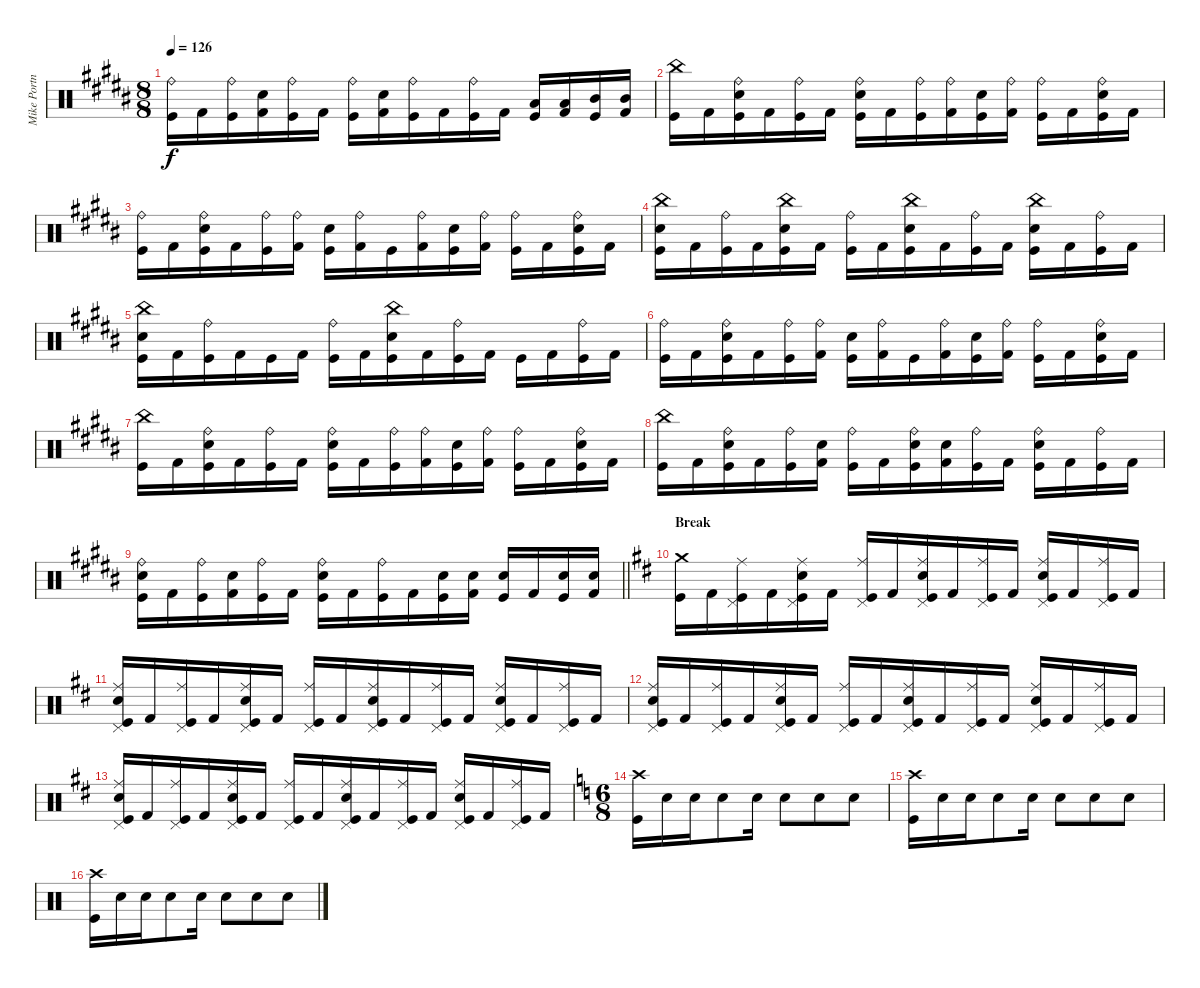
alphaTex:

\track ("Mike Portnoy" "Mike Portn") {instrument percussion}
\staff {score}
\articulation defaults
\ts (8 8)
\tempo 126
\clef neutral
\ks g#minor
("Ride (bell)" "Kick (hit)").16{dy f} "Kick (hit) 2".16 ("Ride (bell)" "Kick (hit)").16 ("Electric Snare (hit)" "Kick (hit) 2").16 ("Ride (bell)" "Kick (hit)").16 "Kick (hit) 2".16 ("Ride (bell)" "Kick (hit)").16 ("Electric Snare (hit)" "Kick (hit) 2").16 ("Ride (bell)" "Kick (hit)").16 "Kick (hit) 2".16 ("Ride (bell)" "Kick (hit)").16 "Kick (hit) 2".16 ("Low Tom (hit)" "Kick (hit)").16 ("Low Tom (hit)" "Kick (hit) 2").16 ("Mid Tom (hit)" "Kick (hit)").16 ("Mid Tom (hit)" "Kick (hit) 2").16 |
("China (hit)" "Kick (hit)").16 "Kick (hit) 2".16 ("Ride (bell)" "Electric Snare (hit)" "Kick (hit)").16 "Kick (hit) 2".16 ("Ride (bell)" "Kick (hit)").16 "Kick (hit) 2".16 ("Ride (bell)" "Electric Snare (hit)" "Kick (hit)").16 "Kick (hit) 2".16 ("Ride (bell)" "Kick (hit)").16 ("Ride (bell)" "Kick (hit) 2").16 ("Electric Snare (hit)" "Kick (hit)").16 ("Ride (bell)" "Kick (hit) 2").16 ("Ride (bell)" "Kick (hit)").16 "Kick (hit) 2".16 ("Ride (bell)" "Electric Snare (hit)" "Kick (hit)").16 "Kick (hit) 2".16 |
("Ride (bell)" "Kick (hit)").16 "Kick (hit) 2".16 ("Ride (bell)" "Electric Snare (hit)" "Kick (hit)").16 "Kick (hit) 2".16 ("Ride (bell)" "Kick (hit)").16 ("Ride (bell)" "Kick (hit) 2").16 ("Electric Snare (hit)" "Kick (hit)").16 ("Ride (bell)" "Kick (hit) 2").16 "Kick (hit)".16 ("Ride (bell)" "Kick (hit) 2").16 ("Electric Snare (hit)" "Kick (hit)").16 ("Ride (bell)" "Kick (hit) 2").16 ("Ride (bell)" "Kick (hit)").16 "Kick (hit) 2".16 ("Ride (bell)" "Electric Snare (hit)" "Kick (hit)").16 "Kick (hit) 2".16 |
("China (hit)" "Snare (hit) 2" "Kick (hit)").16 "Kick (hit) 2".16 ("Ride (bell)" "Kick (hit)").16 "Kick (hit) 2".16 ("China (hit)" "Snare (hit) 2" "Kick (hit)").16 "Kick (hit) 2".16 ("Ride (bell)" "Kick (hit)").16 "Kick (hit) 2".16 ("China (hit)" "Snare (hit) 2" "Kick (hit)").16 "Kick (hit) 2".16 ("Ride (bell)" "Kick (hit)").16 "Kick (hit) 2".16 ("China (hit)" "Snare (hit) 2" "Kick (hit)").16 "Kick (hit) 2".16 ("Ride (bell)" "Kick (hit)").16 "Kick (hit) 2".16 |
("China (hit)" "Snare (hit) 2" "Kick (hit)").16 "Kick (hit) 2".16 ("Ride (bell)" "Kick (hit)").16 "Kick (hit) 2".16 "Kick (hit)".16 "Kick (hit) 2".16 ("Ride (bell)" "Kick (hit)").16 "Kick (hit) 2".16 ("China (hit)" "Snare (hit) 2" "Kick (hit)").16 "Kick (hit) 2".16 ("Ride (bell)" "Kick (hit)").16 "Kick (hit) 2".16 "Kick (hit)".16 "Kick (hit) 2".16 ("Ride (bell)" "Kick (hit)").16 "Kick (hit) 2".16 |
("Ride (bell)" "Kick (hit)").16 "Kick (hit) 2".16 ("Ride (bell)" "Electric Snare (hit)" "Kick (hit)").16 "Kick (hit) 2".16 ("Ride (bell)" "Kick (hit)").16 ("Ride (bell)" "Kick (hit) 2").16 ("Electric Snare (hit)" "Kick (hit)").16 ("Ride (bell)" "Kick (hit) 2").16 "Kick (hit)".16 ("Ride (bell)" "Kick (hit) 2").16 ("Electric Snare (hit)" "Kick (hit)").16 ("Ride (bell)" "Kick (hit) 2").16 ("Ride (bell)" "Kick (hit)").16 "Kick (hit) 2".16 ("Ride (bell)" "Electric Snare (hit)" "Kick (hit)").16 "Kick (hit) 2".16 |
("China (hit)" "Kick (hit)").16 "Kick (hit) 2".16 ("Ride (bell)" "Electric Snare (hit)" "Kick (hit)").16 "Kick (hit) 2".16 ("Ride (bell)" "Kick (hit)").16 "Kick (hit) 2".16 ("Ride (bell)" "Electric Snare (hit)" "Kick (hit)").16 "Kick (hit) 2".16 ("Ride (bell)" "Kick (hit)").16 ("Ride (bell)" "Kick (hit) 2").16 ("Electric Snare (hit)" "Kick (hit)").16 ("Ride (bell)" "Kick (hit) 2").16 ("Ride (bell)" "Kick (hit)").16 "Kick (hit) 2".16 ("Ride (bell)" "Electric Snare (hit)" "Kick (hit)").16 "Kick (hit) 2".16 |
("China (hit)" "Kick (hit)").16 "Kick (hit) 2".16 ("Ride (bell)" "Electric Snare (hit)" "Kick (hit)").16 "Kick (hit) 2".16 ("Ride (bell)" "Kick (hit)").16 ("Electric Snare (hit)" "Kick (hit) 2").16 ("Ride (bell)" "Kick (hit)").16 "Kick (hit) 2".16 ("Ride (bell)" "Electric Snare (hit)" "Kick (hit)").16 ("Electric Snare (hit)" "Kick (hit) 2").16 ("Ride (bell)" "Kick (hit)").16 "Kick (hit) 2".16 ("Ride (bell)" "Electric Snare (hit)" "Kick (hit)").16 "Kick (hit) 2".16 ("Ride (bell)" "Kick (hit)").16 "Kick (hit) 2".16 |
\barLineRight lightlight
("Ride (bell)" "Electric Snare (hit)" "Kick (hit)").16 "Kick (hit) 2".16 ("Ride (bell)" "Kick (hit)").16 ("Electric Snare (hit)" "Kick (hit) 2").16 ("Ride (bell)" "Kick (hit)").16 "Kick (hit) 2".16 ("Ride (bell)" "Electric Snare (hit)" "Kick (hit)").16 "Kick (hit) 2".16 ("Ride (bell)" "Kick (hit)").16 "Kick (hit) 2".16 ("Snare (hit) 2" "Kick (hit)").16 ("Snare (hit) 2" "Kick (hit) 2").16 ("Snare (hit) 2" "Kick (hit)").16 "Kick (hit) 2".16 ("Snare (hit) 2" "Kick (hit)").16 ("Snare (hit) 2" "Kick (hit) 2").16 |
\section ("" "Break")
\ks bminor
("Crash medium (hit)" "Kick (hit)").16 "Kick (hit) 2".16 ("Ride (middle)" "Pedal Hi-Hat (hit)" "Kick (hit)").16 "Kick (hit) 2".16 ("Ride (middle)" "Pedal Hi-Hat (hit)" "Kick (hit)" "Snare (hit) 2").16 "Kick (hit) 2".16 ("Ride (middle)" "Pedal Hi-Hat (hit)" "Kick (hit)").16 "Kick (hit) 2".16 ("Ride (middle)" "Pedal Hi-Hat (hit)" "Kick (hit)" "Snare (hit) 2").16 "Kick (hit) 2".16 ("Ride (middle)" "Pedal Hi-Hat (hit)" "Kick (hit)").16 "Kick (hit) 2".16 ("Ride (middle)" "Pedal Hi-Hat (hit)" "Kick (hit)" "Snare (hit) 2").16 "Kick (hit) 2".16 ("Ride (middle)" "Pedal Hi-Hat (hit)" "Kick (hit)").16 "Kick (hit) 2".16 |
("Snare (hit) 2" "Ride (middle)" "Kick (hit)" "Pedal Hi-Hat (hit)").16 "Kick (hit) 2".16 ("Ride (middle)" "Pedal Hi-Hat (hit)" "Kick (hit)").16 "Kick (hit) 2".16 ("Ride (middle)" "Pedal Hi-Hat (hit)" "Kick (hit)" "Snare (hit) 2").16 "Kick (hit) 2".16 ("Ride (middle)" "Pedal Hi-Hat (hit)" "Kick (hit)").16 "Kick (hit) 2".16 ("Ride (middle)" "Pedal Hi-Hat (hit)" "Kick (hit)" "Snare (hit) 2").16 "Kick (hit) 2".16 ("Ride (middle)" "Pedal Hi-Hat (hit)" "Kick (hit)").16 "Kick (hit) 2".16 ("Ride (middle)" "Pedal Hi-Hat (hit)" "Kick (hit)" "Snare (hit) 2").16 "Kick (hit) 2".16 ("Ride (middle)" "Pedal Hi-Hat (hit)" "Kick (hit)").16 "Kick (hit) 2".16 |
("Snare (hit) 2" "Ride (middle)" "Kick (hit)" "Pedal Hi-Hat (hit)").16 "Kick (hit) 2".16 ("Ride (middle)" "Pedal Hi-Hat (hit)" "Kick (hit)").16 "Kick (hit) 2".16 ("Ride (middle)" "Pedal Hi-Hat (hit)" "Kick (hit)" "Snare (hit) 2").16 "Kick (hit) 2".16 ("Ride (middle)" "Pedal Hi-Hat (hit)" "Kick (hit)").16 "Kick (hit) 2".16 ("Ride (middle)" "Pedal Hi-Hat (hit)" "Kick (hit)" "Snare (hit) 2").16 "Kick (hit) 2".16 ("Ride (middle)" "Pedal Hi-Hat (hit)" "Kick (hit)").16 "Kick (hit) 2".16 ("Ride (middle)" "Pedal Hi-Hat (hit)" "Kick (hit)" "Snare (hit) 2").16 "Kick (hit) 2".16 ("Ride (middle)" "Pedal Hi-Hat (hit)" "Kick (hit)").16 "Kick (hit) 2".16 |
("Snare (hit) 2" "Ride (middle)" "Kick (hit)" "Pedal Hi-Hat (hit)").16 "Kick (hit) 2".16 ("Ride (middle)" "Pedal Hi-Hat (hit)" "Kick (hit)").16 "Kick (hit) 2".16 ("Ride (middle)" "Pedal Hi-Hat (hit)" "Kick (hit)" "Snare (hit) 2").16 "Kick (hit) 2".16 ("Ride (middle)" "Pedal Hi-Hat (hit)" "Kick (hit)").16 "Kick (hit) 2".16 ("Ride (middle)" "Pedal Hi-Hat (hit)" "Kick (hit)" "Snare (hit) 2").16 "Kick (hit) 2".16 ("Ride (middle)" "Pedal Hi-Hat (hit)" "Kick (hit)").16 "Kick (hit) 2".16 ("Ride (middle)" "Pedal Hi-Hat (hit)" "Kick (hit)" "Snare (hit) 2").16 "Kick (hit) 2".16 ("Ride (middle)" "Pedal Hi-Hat (hit)" "Kick (hit)").16 "Kick (hit) 2".16 |
\ts (6 8)
\ks aminor
("Kick (hit)" "Crash high (hit)").16 "Snare (hit) 2".16 "Snare (hit) 2".16 "Snare (hit) 2".8 "Snare (hit) 2".16 "Snare (hit) 2".8 "Snare (hit) 2".8 "Snare (hit) 2".8 |
("Kick (hit)" "Crash high (hit)").16 "Snare (hit) 2".16 "Snare (hit) 2".16 "Snare (hit) 2".8 "Snare (hit) 2".16 "Snare (hit) 2".8 "Snare (hit) 2".8 "Snare (hit) 2".8 |
("Kick (hit)" "Crash high (hit)").16 "Snare (hit) 2".16 "Snare (hit) 2".16 "Snare (hit) 2".8 "Snare (hit) 2".16 "Snare (hit) 2".8 "Snare (hit) 2".8 "Snare (hit) 2".8
